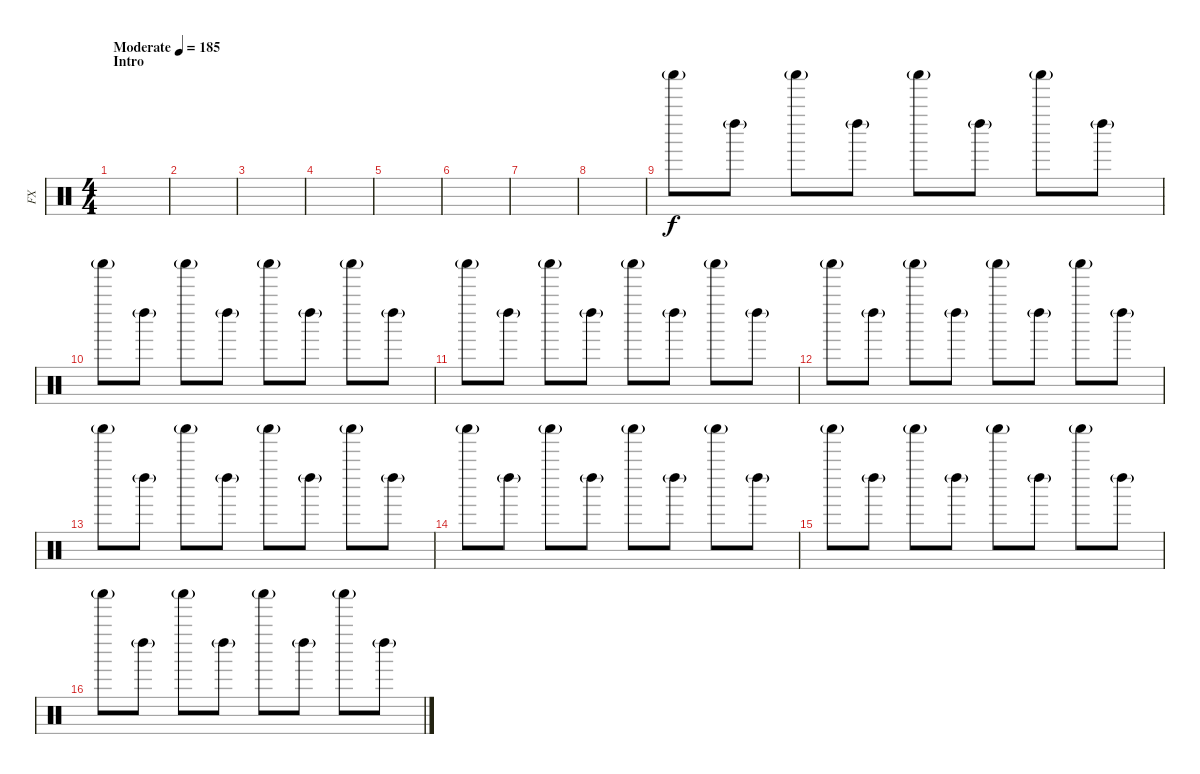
\track ("FX" "FX") {instrument percussion}
\staff {score}
\articulation defaults
\ts (4 4)
\section ("" "Intro")
\tempo (185 "Moderate")
\clef neutral
\ks c
|
|
|
|
|
|
|
|
"Shaker (hit)"{g}.8 "Left Maraca (hit)"{g}.8 "Shaker (hit)"{g}.8 "Left Maraca (hit)"{g}.8 "Shaker (hit)"{g}.8 "Left Maraca (hit)"{g}.8 "Shaker (hit)"{g}.8 "Left Maraca (hit)"{g}.8 |
"Shaker (hit)"{g}.8 "Left Maraca (hit)"{g}.8 "Shaker (hit)"{g}.8 "Left Maraca (hit)"{g}.8 "Shaker (hit)"{g}.8 "Left Maraca (hit)"{g}.8 "Shaker (hit)"{g}.8 "Left Maraca (hit)"{g}.8 |
"Shaker (hit)"{g}.8 "Left Maraca (hit)"{g}.8 "Shaker (hit)"{g}.8 "Left Maraca (hit)"{g}.8 "Shaker (hit)"{g}.8 "Left Maraca (hit)"{g}.8 "Shaker (hit)"{g}.8 "Left Maraca (hit)"{g}.8 |
"Shaker (hit)"{g}.8 "Left Maraca (hit)"{g}.8 "Shaker (hit)"{g}.8 "Left Maraca (hit)"{g}.8 "Shaker (hit)"{g}.8 "Left Maraca (hit)"{g}.8 "Shaker (hit)"{g}.8 "Left Maraca (hit)"{g}.8 |
"Shaker (hit)"{g}.8 "Left Maraca (hit)"{g}.8 "Shaker (hit)"{g}.8 "Left Maraca (hit)"{g}.8 "Shaker (hit)"{g}.8 "Left Maraca (hit)"{g}.8 "Shaker (hit)"{g}.8 "Left Maraca (hit)"{g}.8 |
"Shaker (hit)"{g}.8 "Left Maraca (hit)"{g}.8 "Shaker (hit)"{g}.8 "Left Maraca (hit)"{g}.8 "Shaker (hit)"{g}.8 "Left Maraca (hit)"{g}.8 "Shaker (hit)"{g}.8 "Left Maraca (hit)"{g}.8 |
"Shaker (hit)"{g}.8 "Left Maraca (hit)"{g}.8 "Shaker (hit)"{g}.8 "Left Maraca (hit)"{g}.8 "Shaker (hit)"{g}.8 "Left Maraca (hit)"{g}.8 "Shaker (hit)"{g}.8 "Left Maraca (hit)"{g}.8 |
"Shaker (hit)"{g}.8 "Left Maraca (hit)"{g}.8 "Shaker (hit)"{g}.8 "Left Maraca (hit)"{g}.8 "Shaker (hit)"{g}.8 "Left Maraca (hit)"{g}.8 "Shaker (hit)"{g}.8 "Left Maraca (hit)"{g}.8
